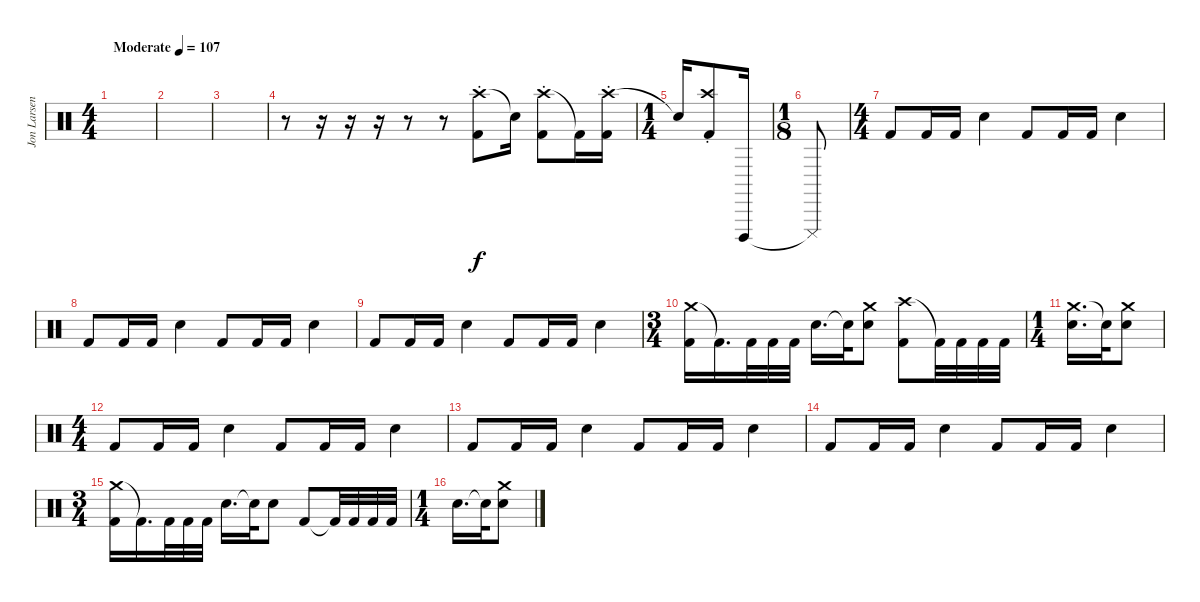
\track ("Jon Larsen (Drums)" "Jon Larsen") {instrument percussion}
\staff {score}
\articulation defaults
\ts (4 4)
\tempo (107 "Moderate")
\clef neutral
\ks c
|
|
|
r.8 r.16 r.16 r.16 r.8 r.8 ("Crash high (hit)"{st} "Kick (hit) 2"{st}).8 "Snare (hit)"{t}.16 ("Crash high (hit)"{st} "Kick (hit) 2"{st}).8 "Kick (hit) 2"{t}.16 ("Crash high (hit)"{st} "Kick (hit) 2"{st}).16 |
\ts (1 4)
"Snare (hit)"{t}.16 ("Crash high (hit)"{st} "Kick (hit) 2"{st}).8 "Cuica (open)".16 |
\ts (1 8)
"Cuica (mute)"{t}.8 |
\ts (4 4)
"Kick (hit) 2".8 "Kick (hit) 2".16 "Kick (hit) 2".16 "Electric Snare (hit)".4 "Kick (hit) 2".8 "Kick (hit) 2".16 "Kick (hit) 2".16 "Electric Snare (hit)".4 |
"Kick (hit) 2".8 "Kick (hit) 2".16 "Kick (hit) 2".16 "Electric Snare (hit)".4 "Kick (hit) 2".8 "Kick (hit) 2".16 "Kick (hit) 2".16 "Electric Snare (hit)".4 |
"Kick (hit) 2".8 "Kick (hit) 2".16 "Kick (hit) 2".16 "Electric Snare (hit)".4 "Kick (hit) 2".8 "Kick (hit) 2".16 "Kick (hit) 2".16 "Electric Snare (hit)".4 |
\ts (3 4)
("Crash medium (hit)" "Kick (hit) 2").16 "Kick (hit) 2"{t}.16{d} "Kick (hit) 2".32 "Kick (hit) 2".32 "Kick (hit) 2".32 "Electric Snare (hit)".16{d} "Electric Snare (hit)"{t}.32 ("Crash medium (hit)" "Electric Snare (hit)").8 ("Crash high (hit)" "Kick (hit) 2").8 "Kick (hit) 2"{t}.32 "Kick (hit) 2".32 "Kick (hit) 2".32 "Kick (hit) 2".32 |
\ts (1 4)
("Crash medium (hit)" "Electric Snare (hit)").16{d} "Electric Snare (hit)"{t}.32 ("Crash medium (hit)" "Electric Snare (hit)").8 |
\ts (4 4)
"Kick (hit) 2".8 "Kick (hit) 2".16 "Kick (hit) 2".16 "Electric Snare (hit)".4 "Kick (hit) 2".8 "Kick (hit) 2".16 "Kick (hit) 2".16 "Electric Snare (hit)".4 |
"Kick (hit) 2".8 "Kick (hit) 2".16 "Kick (hit) 2".16 "Electric Snare (hit)".4 "Kick (hit) 2".8 "Kick (hit) 2".16 "Kick (hit) 2".16 "Electric Snare (hit)".4 |
"Kick (hit) 2".8 "Kick (hit) 2".16 "Kick (hit) 2".16 "Electric Snare (hit)".4 "Kick (hit) 2".8 "Kick (hit) 2".16 "Kick (hit) 2".16 "Electric Snare (hit)".4 |
\ts (3 4)
("Crash medium (hit)" "Kick (hit) 2").16 "Kick (hit) 2"{t}.16{d} "Kick (hit) 2".32 "Kick (hit) 2".32 "Kick (hit) 2".32 "Electric Snare (hit)".16{d} "Electric Snare (hit)"{t}.32 "Electric Snare (hit)".8 "Kick (hit) 2".8 "Kick (hit) 2"{t}.32 "Kick (hit) 2".32 "Kick (hit) 2".32 "Kick (hit) 2".32 |
\ts (1 4)
"Electric Snare (hit)".16{d} "Electric Snare (hit)"{t}.32 ("Crash medium (hit)" "Electric Snare (hit)").8
